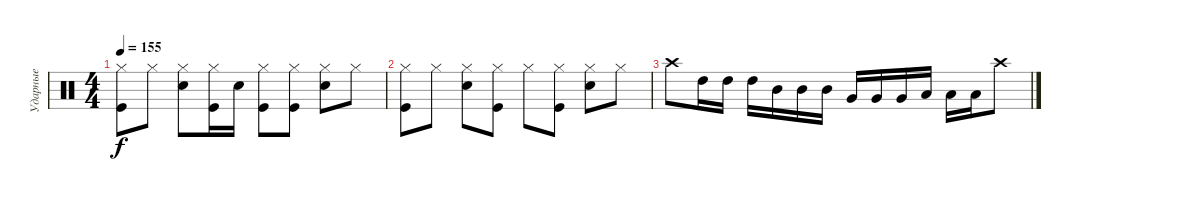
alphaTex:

\track ("Ударные" "Ударные") {instrument percussion}
\staff {score}
\articulation defaults
\ts (4 4)
\tempo 155
\clef neutral
\ks c
("Hi-Hat (closed)" "Kick (hit)").8{dy f} "Hi-Hat (closed)".8 ("Hi-Hat (closed)" "Snare (hit) 2").8 ("Hi-Hat (closed)" "Kick (hit)").16 "Snare (hit) 2".16 ("Hi-Hat (closed)" "Kick (hit)").8 ("Hi-Hat (closed)" "Kick (hit)").8 ("Hi-Hat (closed)" "Snare (hit) 2").8 "Hi-Hat (closed)".8 |
("Hi-Hat (closed)" "Kick (hit)").8 "Hi-Hat (closed)".8 ("Hi-Hat (closed)" "Snare (hit) 2").8 ("Hi-Hat (closed)" "Kick (hit)").8 "Hi-Hat (closed)".8 ("Hi-Hat (closed)" "Kick (hit)").8 ("Hi-Hat (closed)" "Snare (hit) 2").8 "Hi-Hat (closed)".8 |
"Crash high (hit)".8 "High Tom (hit)".16 "High Tom (hit)".16 "High Tom (hit)".16 "Mid Tom (hit)".16 "Mid Tom (hit)".16 "Mid Tom (hit)".16 "Very Low Tom (hit)".16 "Very Low Tom (hit)".16 "Very Low Tom (hit)".16 "Low Floor Tom (hit)".16 "Low Floor Tom (hit)".16 "Low Floor Tom (hit)".16 "Crash high (hit)".8
